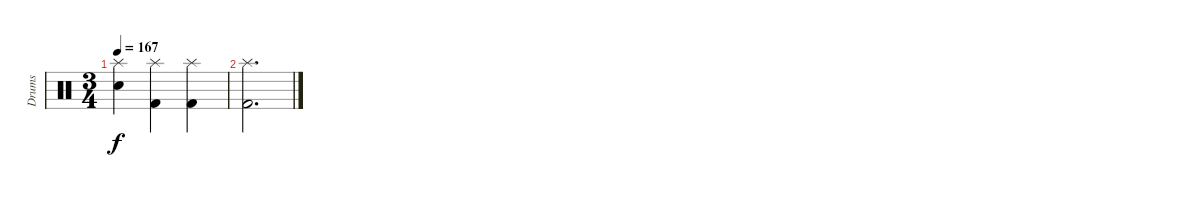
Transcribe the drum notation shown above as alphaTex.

\track ("Drums" "Drums") {instrument percussion}
\staff {score}
\articulation defaults
\ts (3 4)
\tempo 167
\clef neutral
\ks c
("Splash (hit)" "Snare (hit) 2").4{dy f} ("Splash (hit)" "Kick (hit) 2").4 ("Splash (hit)" "Kick (hit) 2").4 |
("Splash (hit)" "Kick (hit) 2").2{d}
